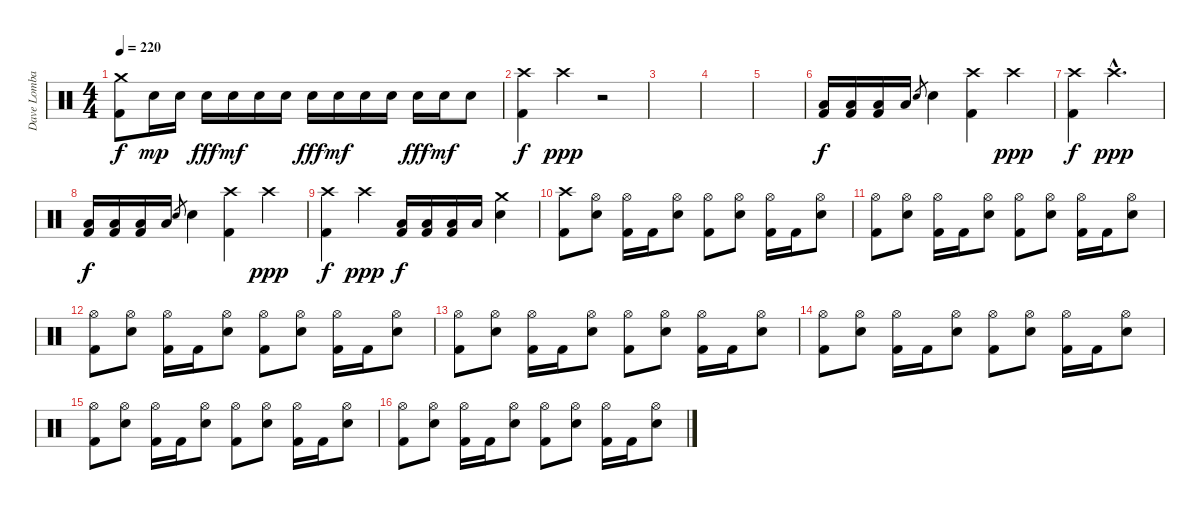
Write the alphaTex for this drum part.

\track ("Dave Lombardo" "Dave Lomba") {instrument percussion}
\staff {score}
\articulation defaults
\ts (4 4)
\tempo 220
\clef neutral
\ks c
("Crash medium (hit)" "Kick (hit) 2").8{dy f} "Electric Snare (hit)".16{dy mp} "Electric Snare (hit)".16 "Electric Snare (hit)".16{dy fff} "Electric Snare (hit)".16{dy mf} "Electric Snare (hit)".16 "Electric Snare (hit)".16 "Electric Snare (hit)".16{dy fff} "Electric Snare (hit)".16{dy mf} "Electric Snare (hit)".16 "Electric Snare (hit)".16 "Electric Snare (hit)".16{dy fff} "Electric Snare (hit)".16{dy mf} "Electric Snare (hit)".8 |
("Crash high (hit)" "Kick (hit) 2").4{dy f} "Crash high (hit)".4{dy ppp} r.2 |
|
|
|
("Kick (hit) 2" "Low Tom (hit)").16{dy f} ("Kick (hit) 2" "Low Tom (hit)").16 ("Kick (hit) 2" "Low Tom (hit)").16 "Low Tom (hit)".16 "Electric Snare (hit)".8{gr} "Electric Snare (hit)".4 ("Crash high (hit)" "Kick (hit) 2").4 "Crash high (hit)".4{dy ppp} |
("Crash high (hit)" "Kick (hit) 2").4{dy f} "Crash high (hit)"{hac}.2{d dy ppp} |
("Kick (hit) 2" "Low Tom (hit)").16{dy f} ("Kick (hit) 2" "Low Tom (hit)").16 ("Kick (hit) 2" "Low Tom (hit)").16 "Low Tom (hit)".16 "Electric Snare (hit)".8{gr} "Electric Snare (hit)".4 ("Crash high (hit)" "Kick (hit) 2").4 "Crash high (hit)".4{dy ppp} |
("Crash high (hit)" "Kick (hit) 2").4{dy f} "Crash high (hit)".4{dy ppp} ("Kick (hit) 2" "Low Tom (hit)").16{dy f} ("Kick (hit) 2" "Low Tom (hit)").16 ("Kick (hit) 2" "Low Tom (hit)").16 "Low Tom (hit)".16 ("Crash medium (hit)" "Electric Snare (hit)").4 |
("Crash high (hit)" "Kick (hit) 2").8 ("Hi-Hat (open)" "Electric Snare (hit)").8 ("Hi-Hat (open)" "Kick (hit) 2").16 "Kick (hit) 2".16 ("Hi-Hat (open)" "Electric Snare (hit)").8 ("Hi-Hat (open)" "Kick (hit) 2").8 ("Hi-Hat (open)" "Electric Snare (hit)").8 ("Hi-Hat (open)" "Kick (hit) 2").16 "Kick (hit) 2".16 ("Hi-Hat (open)" "Electric Snare (hit)").8 |
("Hi-Hat (open)" "Kick (hit) 2").8 ("Hi-Hat (open)" "Electric Snare (hit)").8 ("Hi-Hat (open)" "Kick (hit) 2").16 "Kick (hit) 2".16 ("Hi-Hat (open)" "Electric Snare (hit)").8 ("Hi-Hat (open)" "Kick (hit) 2").8 ("Hi-Hat (open)" "Electric Snare (hit)").8 ("Hi-Hat (open)" "Kick (hit) 2").16 "Kick (hit) 2".16 ("Hi-Hat (open)" "Electric Snare (hit)").8 |
("Hi-Hat (open)" "Kick (hit) 2").8 ("Hi-Hat (open)" "Electric Snare (hit)").8 ("Hi-Hat (open)" "Kick (hit) 2").16 "Kick (hit) 2".16 ("Hi-Hat (open)" "Electric Snare (hit)").8 ("Hi-Hat (open)" "Kick (hit) 2").8 ("Hi-Hat (open)" "Electric Snare (hit)").8 ("Hi-Hat (open)" "Kick (hit) 2").16 "Kick (hit) 2".16 ("Hi-Hat (open)" "Electric Snare (hit)").8 |
("Hi-Hat (open)" "Kick (hit) 2").8 ("Hi-Hat (open)" "Electric Snare (hit)").8 ("Hi-Hat (open)" "Kick (hit) 2").16 "Kick (hit) 2".16 ("Hi-Hat (open)" "Electric Snare (hit)").8 ("Hi-Hat (open)" "Kick (hit) 2").8 ("Hi-Hat (open)" "Electric Snare (hit)").8 ("Hi-Hat (open)" "Kick (hit) 2").16 "Kick (hit) 2".16 ("Hi-Hat (open)" "Electric Snare (hit)").8 |
("Hi-Hat (open)" "Kick (hit) 2").8 ("Hi-Hat (open)" "Electric Snare (hit)").8 ("Hi-Hat (open)" "Kick (hit) 2").16 "Kick (hit) 2".16 ("Hi-Hat (open)" "Electric Snare (hit)").8 ("Hi-Hat (open)" "Kick (hit) 2").8 ("Hi-Hat (open)" "Electric Snare (hit)").8 ("Hi-Hat (open)" "Kick (hit) 2").16 "Kick (hit) 2".16 ("Hi-Hat (open)" "Electric Snare (hit)").8 |
("Hi-Hat (open)" "Kick (hit) 2").8 ("Hi-Hat (open)" "Electric Snare (hit)").8 ("Hi-Hat (open)" "Kick (hit) 2").16 "Kick (hit) 2".16 ("Hi-Hat (open)" "Electric Snare (hit)").8 ("Hi-Hat (open)" "Kick (hit) 2").8 ("Hi-Hat (open)" "Electric Snare (hit)").8 ("Hi-Hat (open)" "Kick (hit) 2").16 "Kick (hit) 2".16 ("Hi-Hat (open)" "Electric Snare (hit)").8 |
("Hi-Hat (open)" "Kick (hit) 2").8 ("Hi-Hat (open)" "Electric Snare (hit)").8 ("Hi-Hat (open)" "Kick (hit) 2").16 "Kick (hit) 2".16 ("Hi-Hat (open)" "Electric Snare (hit)").8 ("Hi-Hat (open)" "Kick (hit) 2").8 ("Hi-Hat (open)" "Electric Snare (hit)").8 ("Hi-Hat (open)" "Kick (hit) 2").16 "Kick (hit) 2".16 ("Hi-Hat (open)" "Electric Snare (hit)").8
